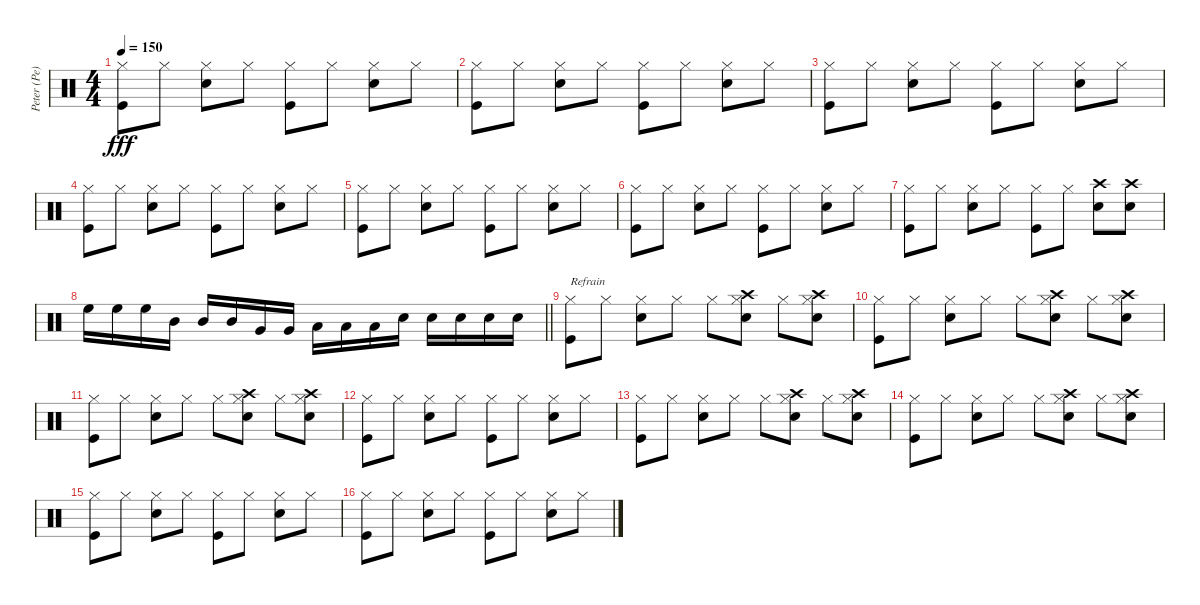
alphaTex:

\track ("Peter (Pe) Schorowsky" "Peter (Pe)") {instrument percussion}
\staff {score}
\articulation defaults
\ts (4 4)
\tempo 150
\clef neutral
\ks c
("Kick (hit)" "Hi-Hat (closed)").8{dy fff} "Hi-Hat (closed)".8 ("Electric Snare (hit)" "Hi-Hat (closed)").8 "Hi-Hat (closed)".8 ("Kick (hit)" "Hi-Hat (closed)").8 "Hi-Hat (closed)".8 ("Electric Snare (hit)" "Hi-Hat (closed)").8 "Hi-Hat (closed)".8 |
("Kick (hit)" "Hi-Hat (closed)").8 "Hi-Hat (closed)".8 ("Electric Snare (hit)" "Hi-Hat (closed)").8 "Hi-Hat (closed)".8 ("Kick (hit)" "Hi-Hat (closed)").8 "Hi-Hat (closed)".8 ("Electric Snare (hit)" "Hi-Hat (closed)").8 "Hi-Hat (closed)".8 |
("Kick (hit)" "Hi-Hat (closed)").8 "Hi-Hat (closed)".8 ("Electric Snare (hit)" "Hi-Hat (closed)").8 "Hi-Hat (closed)".8 ("Kick (hit)" "Hi-Hat (closed)").8 "Hi-Hat (closed)".8 ("Electric Snare (hit)" "Hi-Hat (closed)").8 "Hi-Hat (closed)".8 |
("Kick (hit)" "Hi-Hat (closed)").8 "Hi-Hat (closed)".8 ("Electric Snare (hit)" "Hi-Hat (closed)").8 "Hi-Hat (closed)".8 ("Kick (hit)" "Hi-Hat (closed)").8 "Hi-Hat (closed)".8 ("Electric Snare (hit)" "Hi-Hat (closed)").8 "Hi-Hat (closed)".8 |
("Kick (hit)" "Hi-Hat (closed)").8 "Hi-Hat (closed)".8 ("Electric Snare (hit)" "Hi-Hat (closed)").8 "Hi-Hat (closed)".8 ("Kick (hit)" "Hi-Hat (closed)").8 "Hi-Hat (closed)".8 ("Electric Snare (hit)" "Hi-Hat (closed)").8 "Hi-Hat (closed)".8 |
("Kick (hit)" "Hi-Hat (closed)").8 "Hi-Hat (closed)".8 ("Electric Snare (hit)" "Hi-Hat (closed)").8 "Hi-Hat (closed)".8 ("Kick (hit)" "Hi-Hat (closed)").8 "Hi-Hat (closed)".8 ("Electric Snare (hit)" "Hi-Hat (closed)").8 "Hi-Hat (closed)".8 |
("Kick (hit)" "Hi-Hat (closed)").8 "Hi-Hat (closed)".8 ("Electric Snare (hit)" "Hi-Hat (closed)").8 "Hi-Hat (closed)".8 ("Kick (hit)" "Hi-Hat (closed)").8 "Hi-Hat (closed)".8 ("Electric Snare (hit)" "Crash high (hit)").8 ("Electric Snare (hit)" "Crash high (hit)").8 |
\barLineRight lightlight "High Floor Tom (hit)".16 "High Floor Tom (hit)".16 "High Floor Tom (hit)".16 "Mid Tom (hit)".16 "Mid Tom (hit)".16 "Mid Tom (hit)".16 "Very Low Tom (hit)".16 "Very Low Tom (hit)".16 "Low Floor Tom (hit)".16 "Low Floor Tom (hit)".16 "Low Floor Tom (hit)".16 "Electric Snare (hit)".16 "Electric Snare (hit)".16 "Electric Snare (hit)".16 "Electric Snare (hit)".16 "Electric Snare (hit)".16
|
("Kick (hit)" "Hi-Hat (closed)").8{txt "Refrain"} "Hi-Hat (closed)".8 ("Electric Snare (hit)" "Hi-Hat (closed)").8 "Hi-Hat (closed)".8 "Hi-Hat (closed)".8 ("Crash high (hit)" "Electric Snare (hit)" "Hi-Hat (closed)").8 "Hi-Hat (closed)".8 ("Crash high (hit)" "Electric Snare (hit)" "Hi-Hat (closed)").8 |
("Kick (hit)" "Hi-Hat (closed)").8 "Hi-Hat (closed)".8 ("Electric Snare (hit)" "Hi-Hat (closed)").8 "Hi-Hat (closed)".8 "Hi-Hat (closed)".8 ("Crash high (hit)" "Electric Snare (hit)" "Hi-Hat (closed)").8 "Hi-Hat (closed)".8 ("Crash high (hit)" "Electric Snare (hit)" "Hi-Hat (closed)").8 |
("Kick (hit)" "Hi-Hat (closed)").8 "Hi-Hat (closed)".8 ("Electric Snare (hit)" "Hi-Hat (closed)").8 "Hi-Hat (closed)".8 "Hi-Hat (closed)".8 ("Crash high (hit)" "Electric Snare (hit)" "Hi-Hat (closed)").8 "Hi-Hat (closed)".8 ("Crash high (hit)" "Electric Snare (hit)" "Hi-Hat (closed)").8 |
("Kick (hit)" "Hi-Hat (closed)").8 "Hi-Hat (closed)".8 ("Electric Snare (hit)" "Hi-Hat (closed)").8 "Hi-Hat (closed)".8 ("Kick (hit)" "Hi-Hat (closed)").8 "Hi-Hat (closed)".8 ("Electric Snare (hit)" "Hi-Hat (closed)").8 "Hi-Hat (closed)".8 |
("Kick (hit)" "Hi-Hat (closed)").8 "Hi-Hat (closed)".8 ("Electric Snare (hit)" "Hi-Hat (closed)").8 "Hi-Hat (closed)".8 "Hi-Hat (closed)".8 ("Crash high (hit)" "Electric Snare (hit)" "Hi-Hat (closed)").8 "Hi-Hat (closed)".8 ("Crash high (hit)" "Electric Snare (hit)" "Hi-Hat (closed)").8 |
("Kick (hit)" "Hi-Hat (closed)").8 "Hi-Hat (closed)".8 ("Electric Snare (hit)" "Hi-Hat (closed)").8 "Hi-Hat (closed)".8 "Hi-Hat (closed)".8 ("Crash high (hit)" "Electric Snare (hit)" "Hi-Hat (closed)").8 "Hi-Hat (closed)".8 ("Crash high (hit)" "Electric Snare (hit)" "Hi-Hat (closed)").8 |
("Kick (hit)" "Hi-Hat (closed)").8 "Hi-Hat (closed)".8 ("Electric Snare (hit)" "Hi-Hat (closed)").8 "Hi-Hat (closed)".8 ("Kick (hit)" "Hi-Hat (closed)").8 "Hi-Hat (closed)".8 ("Electric Snare (hit)" "Hi-Hat (closed)").8 "Hi-Hat (closed)".8 |
("Kick (hit)" "Hi-Hat (closed)").8 "Hi-Hat (closed)".8 ("Electric Snare (hit)" "Hi-Hat (closed)").8 "Hi-Hat (closed)".8 ("Kick (hit)" "Hi-Hat (closed)").8 "Hi-Hat (closed)".8 ("Electric Snare (hit)" "Hi-Hat (closed)").8 "Hi-Hat (closed)".8
